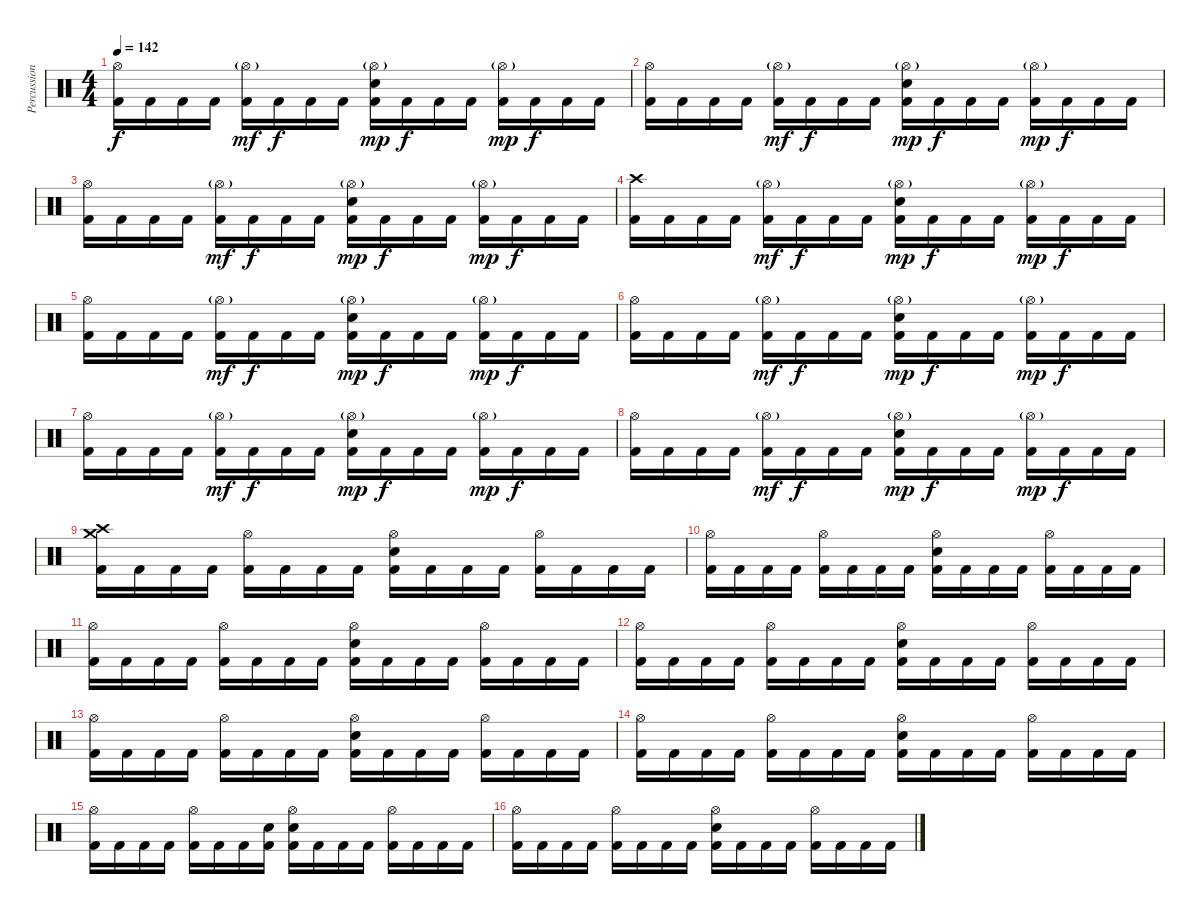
\track ("Percussion" "Percussion") {instrument percussion}
\staff {score}
\articulation defaults
\ts (4 4)
\tempo 142
\clef neutral
\ks c
("Hi-Hat (open)" "Kick (hit) 2").16{dy f} "Kick (hit) 2".16 "Kick (hit) 2".16 "Kick (hit) 2".16 ("Hi-Hat (open)"{g} "Kick (hit) 2").16{dy mf} "Kick (hit) 2".16{dy f} "Kick (hit) 2".16 "Kick (hit) 2".16 ("Hi-Hat (open)"{g} "Electric Snare (hit)" "Kick (hit) 2").16{dy mp} "Kick (hit) 2".16{dy f} "Kick (hit) 2".16 "Kick (hit) 2".16 ("Hi-Hat (open)"{g} "Kick (hit) 2").16{dy mp} "Kick (hit) 2".16{dy f} "Kick (hit) 2".16 "Kick (hit) 2".16 |
("Hi-Hat (open)" "Kick (hit) 2").16 "Kick (hit) 2".16 "Kick (hit) 2".16 "Kick (hit) 2".16 ("Hi-Hat (open)"{g} "Kick (hit) 2").16{dy mf} "Kick (hit) 2".16{dy f} "Kick (hit) 2".16 "Kick (hit) 2".16 ("Hi-Hat (open)"{g} "Electric Snare (hit)" "Kick (hit) 2").16{dy mp} "Kick (hit) 2".16{dy f} "Kick (hit) 2".16 "Kick (hit) 2".16 ("Hi-Hat (open)"{g} "Kick (hit) 2").16{dy mp} "Kick (hit) 2".16{dy f} "Kick (hit) 2".16 "Kick (hit) 2".16 |
("Hi-Hat (open)" "Kick (hit) 2").16 "Kick (hit) 2".16 "Kick (hit) 2".16 "Kick (hit) 2".16 ("Hi-Hat (open)"{g} "Kick (hit) 2").16{dy mf} "Kick (hit) 2".16{dy f} "Kick (hit) 2".16 "Kick (hit) 2".16 ("Hi-Hat (open)"{g} "Electric Snare (hit)" "Kick (hit) 2").16{dy mp} "Kick (hit) 2".16{dy f} "Kick (hit) 2".16 "Kick (hit) 2".16 ("Hi-Hat (open)"{g} "Kick (hit) 2").16{dy mp} "Kick (hit) 2".16{dy f} "Kick (hit) 2".16 "Kick (hit) 2".16 |
("Crash high (hit)" "Kick (hit) 2").16 "Kick (hit) 2".16 "Kick (hit) 2".16 "Kick (hit) 2".16 ("Hi-Hat (open)"{g} "Kick (hit) 2").16{dy mf} "Kick (hit) 2".16{dy f} "Kick (hit) 2".16 "Kick (hit) 2".16 ("Hi-Hat (open)"{g} "Electric Snare (hit)" "Kick (hit) 2").16{dy mp} "Kick (hit) 2".16{dy f} "Kick (hit) 2".16 "Kick (hit) 2".16 ("Hi-Hat (open)"{g} "Kick (hit) 2").16{dy mp} "Kick (hit) 2".16{dy f} "Kick (hit) 2".16 "Kick (hit) 2".16 |
("Hi-Hat (open)" "Kick (hit) 2").16 "Kick (hit) 2".16 "Kick (hit) 2".16 "Kick (hit) 2".16 ("Hi-Hat (open)"{g} "Kick (hit) 2").16{dy mf} "Kick (hit) 2".16{dy f} "Kick (hit) 2".16 "Kick (hit) 2".16 ("Hi-Hat (open)"{g} "Electric Snare (hit)" "Kick (hit) 2").16{dy mp} "Kick (hit) 2".16{dy f} "Kick (hit) 2".16 "Kick (hit) 2".16 ("Hi-Hat (open)"{g} "Kick (hit) 2").16{dy mp} "Kick (hit) 2".16{dy f} "Kick (hit) 2".16 "Kick (hit) 2".16 |
("Hi-Hat (open)" "Kick (hit) 2").16 "Kick (hit) 2".16 "Kick (hit) 2".16 "Kick (hit) 2".16 ("Hi-Hat (open)"{g} "Kick (hit) 2").16{dy mf} "Kick (hit) 2".16{dy f} "Kick (hit) 2".16 "Kick (hit) 2".16 ("Hi-Hat (open)"{g} "Electric Snare (hit)" "Kick (hit) 2").16{dy mp} "Kick (hit) 2".16{dy f} "Kick (hit) 2".16 "Kick (hit) 2".16 ("Hi-Hat (open)"{g} "Kick (hit) 2").16{dy mp} "Kick (hit) 2".16{dy f} "Kick (hit) 2".16 "Kick (hit) 2".16 |
("Hi-Hat (open)" "Kick (hit) 2").16 "Kick (hit) 2".16 "Kick (hit) 2".16 "Kick (hit) 2".16 ("Hi-Hat (open)"{g} "Kick (hit) 2").16{dy mf} "Kick (hit) 2".16{dy f} "Kick (hit) 2".16 "Kick (hit) 2".16 ("Hi-Hat (open)"{g} "Electric Snare (hit)" "Kick (hit) 2").16{dy mp} "Kick (hit) 2".16{dy f} "Kick (hit) 2".16 "Kick (hit) 2".16 ("Hi-Hat (open)"{g} "Kick (hit) 2").16{dy mp} "Kick (hit) 2".16{dy f} "Kick (hit) 2".16 "Kick (hit) 2".16 |
("Hi-Hat (open)" "Kick (hit) 2").16 "Kick (hit) 2".16 "Kick (hit) 2".16 "Kick (hit) 2".16 ("Hi-Hat (open)"{g} "Kick (hit) 2").16{dy mf} "Kick (hit) 2".16{dy f} "Kick (hit) 2".16 "Kick (hit) 2".16 ("Hi-Hat (open)"{g} "Electric Snare (hit)" "Kick (hit) 2").16{dy mp} "Kick (hit) 2".16{dy f} "Kick (hit) 2".16 "Kick (hit) 2".16 ("Hi-Hat (open)"{g} "Kick (hit) 2").16{dy mp} "Kick (hit) 2".16{dy f} "Kick (hit) 2".16 "Kick (hit) 2".16 |
("Crash medium (hit)" "Crash high (hit)" "Kick (hit) 2").16 "Kick (hit) 2".16 "Kick (hit) 2".16 "Kick (hit) 2".16 ("Hi-Hat (open)" "Kick (hit) 2").16 "Kick (hit) 2".16 "Kick (hit) 2".16 "Kick (hit) 2".16 ("Hi-Hat (open)" "Electric Snare (hit)" "Kick (hit) 2").16 "Kick (hit) 2".16 "Kick (hit) 2".16 "Kick (hit) 2".16 ("Hi-Hat (open)" "Kick (hit) 2").16 "Kick (hit) 2".16 "Kick (hit) 2".16 "Kick (hit) 2".16 |
("Hi-Hat (open)" "Kick (hit) 2").16 "Kick (hit) 2".16 "Kick (hit) 2".16 "Kick (hit) 2".16 ("Hi-Hat (open)" "Kick (hit) 2").16 "Kick (hit) 2".16 "Kick (hit) 2".16 "Kick (hit) 2".16 ("Hi-Hat (open)" "Electric Snare (hit)" "Kick (hit) 2").16 "Kick (hit) 2".16 "Kick (hit) 2".16 "Kick (hit) 2".16 ("Hi-Hat (open)" "Kick (hit) 2").16 "Kick (hit) 2".16 "Kick (hit) 2".16 "Kick (hit) 2".16 |
("Hi-Hat (open)" "Kick (hit) 2").16 "Kick (hit) 2".16 "Kick (hit) 2".16 "Kick (hit) 2".16 ("Hi-Hat (open)" "Kick (hit) 2").16 "Kick (hit) 2".16 "Kick (hit) 2".16 "Kick (hit) 2".16 ("Hi-Hat (open)" "Electric Snare (hit)" "Kick (hit) 2").16 "Kick (hit) 2".16 "Kick (hit) 2".16 "Kick (hit) 2".16 ("Hi-Hat (open)" "Kick (hit) 2").16 "Kick (hit) 2".16 "Kick (hit) 2".16 "Kick (hit) 2".16 |
("Hi-Hat (open)" "Kick (hit) 2").16 "Kick (hit) 2".16 "Kick (hit) 2".16 "Kick (hit) 2".16 ("Hi-Hat (open)" "Kick (hit) 2").16 "Kick (hit) 2".16 "Kick (hit) 2".16 "Kick (hit) 2".16 ("Hi-Hat (open)" "Electric Snare (hit)" "Kick (hit) 2").16 "Kick (hit) 2".16 "Kick (hit) 2".16 "Kick (hit) 2".16 ("Hi-Hat (open)" "Kick (hit) 2").16 "Kick (hit) 2".16 "Kick (hit) 2".16 "Kick (hit) 2".16 |
("Hi-Hat (open)" "Kick (hit) 2").16 "Kick (hit) 2".16 "Kick (hit) 2".16 "Kick (hit) 2".16 ("Hi-Hat (open)" "Kick (hit) 2").16 "Kick (hit) 2".16 "Kick (hit) 2".16 "Kick (hit) 2".16 ("Hi-Hat (open)" "Electric Snare (hit)" "Kick (hit) 2").16 "Kick (hit) 2".16 "Kick (hit) 2".16 "Kick (hit) 2".16 ("Hi-Hat (open)" "Kick (hit) 2").16 "Kick (hit) 2".16 "Kick (hit) 2".16 "Kick (hit) 2".16 |
("Hi-Hat (open)" "Kick (hit) 2").16 "Kick (hit) 2".16 "Kick (hit) 2".16 "Kick (hit) 2".16 ("Hi-Hat (open)" "Kick (hit) 2").16 "Kick (hit) 2".16 "Kick (hit) 2".16 "Kick (hit) 2".16 ("Hi-Hat (open)" "Electric Snare (hit)" "Kick (hit) 2").16 "Kick (hit) 2".16 "Kick (hit) 2".16 "Kick (hit) 2".16 ("Hi-Hat (open)" "Kick (hit) 2").16 "Kick (hit) 2".16 "Kick (hit) 2".16 "Kick (hit) 2".16 |
("Hi-Hat (open)" "Kick (hit) 2").16 "Kick (hit) 2".16 "Kick (hit) 2".16 "Kick (hit) 2".16 ("Hi-Hat (open)" "Kick (hit) 2").16 "Kick (hit) 2".16 "Kick (hit) 2".16 ("Electric Snare (hit)" "Kick (hit) 2").16 ("Hi-Hat (open)" "Electric Snare (hit)" "Kick (hit) 2").16 "Kick (hit) 2".16 "Kick (hit) 2".16 "Kick (hit) 2".16 ("Hi-Hat (open)" "Kick (hit) 2").16 "Kick (hit) 2".16 "Kick (hit) 2".16 "Kick (hit) 2".16 |
("Hi-Hat (open)" "Kick (hit) 2").16 "Kick (hit) 2".16 "Kick (hit) 2".16 "Kick (hit) 2".16 ("Hi-Hat (open)" "Kick (hit) 2").16 "Kick (hit) 2".16 "Kick (hit) 2".16 "Kick (hit) 2".16 ("Hi-Hat (open)" "Electric Snare (hit)" "Kick (hit) 2").16 "Kick (hit) 2".16 "Kick (hit) 2".16 "Kick (hit) 2".16 ("Hi-Hat (open)" "Kick (hit) 2").16 "Kick (hit) 2".16 "Kick (hit) 2".16 "Kick (hit) 2".16
